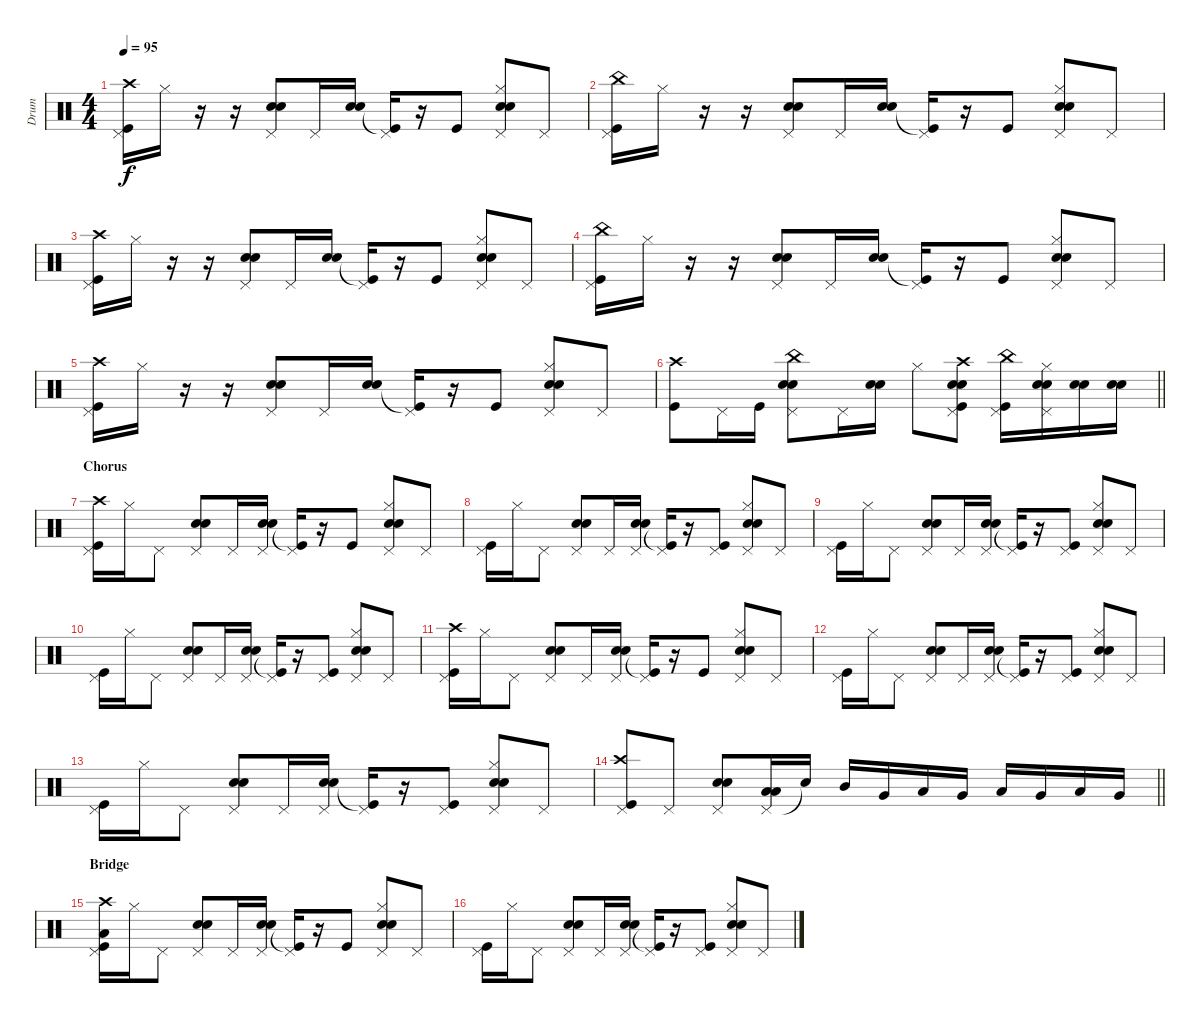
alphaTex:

\track ("Drum" "Drum") {instrument percussion}
\staff {score}
\articulation defaults
\ts (4 4)
\tempo 95
\clef neutral
\ks c
("Pedal Hi-Hat (hit)" "Crash high (hit)" "Kick (hit)").16{dy f} "Hi-Hat (closed)".16 r.16 r.16 ("Pedal Hi-Hat (hit)" "Snare (hit) 2" "Snare (hit) 2").8 "Pedal Hi-Hat (hit)".16 ("Snare (hit) 2" "Snare (hit) 2").16 ("Pedal Hi-Hat (hit)" "Kick (hit)"{t}).16 r.16 "Kick (hit)".8 ("Pedal Hi-Hat (hit)" "Hi-Hat (closed)" "Snare (hit) 2" "Snare (hit) 2").8 "Pedal Hi-Hat (hit)".8 |
("Pedal Hi-Hat (hit)" "China (hit)" "Kick (hit)").16 "Hi-Hat (closed)".16 r.16 r.16 ("Pedal Hi-Hat (hit)" "Snare (hit) 2" "Snare (hit) 2").8 "Pedal Hi-Hat (hit)".16 ("Snare (hit) 2" "Snare (hit) 2").16 ("Pedal Hi-Hat (hit)" "Kick (hit)"{t}).16 r.16 "Kick (hit)".8 ("Pedal Hi-Hat (hit)" "Hi-Hat (closed)" "Snare (hit) 2" "Snare (hit) 2").8 "Pedal Hi-Hat (hit)".8 |
("Pedal Hi-Hat (hit)" "Crash high (hit)" "Kick (hit)").16 "Hi-Hat (closed)".16 r.16 r.16 ("Pedal Hi-Hat (hit)" "Snare (hit) 2" "Snare (hit) 2").8 "Pedal Hi-Hat (hit)".16 ("Snare (hit) 2" "Snare (hit) 2").16 ("Pedal Hi-Hat (hit)" "Kick (hit)"{t}).16 r.16 "Kick (hit)".8 ("Pedal Hi-Hat (hit)" "Hi-Hat (closed)" "Snare (hit) 2" "Snare (hit) 2").8 "Pedal Hi-Hat (hit)".8 |
("Pedal Hi-Hat (hit)" "China (hit)" "Kick (hit)").16 "Hi-Hat (closed)".16 r.16 r.16 ("Pedal Hi-Hat (hit)" "Snare (hit) 2" "Snare (hit) 2").8 "Pedal Hi-Hat (hit)".16 ("Snare (hit) 2" "Snare (hit) 2").16 ("Pedal Hi-Hat (hit)" "Kick (hit)"{t}).16 r.16 "Kick (hit)".8 ("Pedal Hi-Hat (hit)" "Hi-Hat (closed)" "Snare (hit) 2" "Snare (hit) 2").8 "Pedal Hi-Hat (hit)".8 |
("Pedal Hi-Hat (hit)" "Crash high (hit)" "Kick (hit)").16 "Hi-Hat (closed)".16 r.16 r.16 ("Pedal Hi-Hat (hit)" "Snare (hit) 2" "Snare (hit) 2").8 "Pedal Hi-Hat (hit)".16 ("Snare (hit) 2" "Snare (hit) 2").16 ("Pedal Hi-Hat (hit)" "Kick (hit)"{t}).16 r.16 "Kick (hit)".8 ("Pedal Hi-Hat (hit)" "Hi-Hat (closed)" "Snare (hit) 2" "Snare (hit) 2").8 "Pedal Hi-Hat (hit)".8 |
\barLineRight lightlight
("Crash high (hit)" "Kick (hit)").8 "Pedal Hi-Hat (hit)".16 "Kick (hit)".16 ("Pedal Hi-Hat (hit)" "China (hit)" "Snare (hit) 2" "Snare (hit) 2").8 "Pedal Hi-Hat (hit)".16 ("Snare (hit) 2" "Snare (hit) 2").16 "Hi-Hat (closed)".8 ("Pedal Hi-Hat (hit)" "Crash high (hit)" "Snare (hit) 2" "Snare (hit) 2" "Kick (hit)").8 ("Pedal Hi-Hat (hit)" "China (hit)" "Kick (hit)").16 ("Pedal Hi-Hat (hit)" "Hi-Hat (closed)" "Snare (hit) 2" "Snare (hit) 2").16 ("Electric Snare (hit)" "Electric Snare (hit)").16 ("Electric Snare (hit)" "Electric Snare (hit)").16 |
\section ("" "Chorus")
("Pedal Hi-Hat (hit)" "Crash high (hit)" "Kick (hit)").16 "Hi-Hat (closed)".16 "Pedal Hi-Hat (hit)".8 ("Pedal Hi-Hat (hit)" "Snare (hit) 2" "Snare (hit) 2").8 "Pedal Hi-Hat (hit)".16 ("Pedal Hi-Hat (hit)" "Snare (hit) 2" "Snare (hit) 2").16 ("Pedal Hi-Hat (hit)" "Kick (hit)"{t}).16 r.16 "Kick (hit)".8 ("Pedal Hi-Hat (hit)" "Hi-Hat (closed)" "Snare (hit) 2" "Snare (hit) 2").8 "Pedal Hi-Hat (hit)".8 |
("Pedal Hi-Hat (hit)" "Kick (hit)").16 "Hi-Hat (closed)".16 "Pedal Hi-Hat (hit)".8 ("Pedal Hi-Hat (hit)" "Snare (hit) 2" "Snare (hit) 2").8 "Pedal Hi-Hat (hit)".16 ("Pedal Hi-Hat (hit)" "Snare (hit) 2" "Snare (hit) 2").16 ("Pedal Hi-Hat (hit)" "Kick (hit)"{t}).16 r.16 ("Pedal Hi-Hat (hit)" "Kick (hit)").8 ("Pedal Hi-Hat (hit)" "Hi-Hat (closed)" "Snare (hit) 2" "Snare (hit) 2").8 "Pedal Hi-Hat (hit)".8 |
("Pedal Hi-Hat (hit)" "Kick (hit)").16 "Hi-Hat (closed)".16 "Pedal Hi-Hat (hit)".8 ("Pedal Hi-Hat (hit)" "Snare (hit) 2" "Snare (hit) 2").8 "Pedal Hi-Hat (hit)".16 ("Pedal Hi-Hat (hit)" "Snare (hit) 2" "Snare (hit) 2").16 ("Pedal Hi-Hat (hit)" "Kick (hit)"{t}).16 r.16 ("Pedal Hi-Hat (hit)" "Kick (hit)").8 ("Pedal Hi-Hat (hit)" "Hi-Hat (closed)" "Snare (hit) 2" "Snare (hit) 2").8 "Pedal Hi-Hat (hit)".8 |
("Pedal Hi-Hat (hit)" "Kick (hit)").16 "Hi-Hat (closed)".16 "Pedal Hi-Hat (hit)".8 ("Pedal Hi-Hat (hit)" "Snare (hit) 2" "Snare (hit) 2").8 "Pedal Hi-Hat (hit)".16 ("Pedal Hi-Hat (hit)" "Snare (hit) 2" "Snare (hit) 2").16 ("Pedal Hi-Hat (hit)" "Kick (hit)"{t}).16 r.16 ("Pedal Hi-Hat (hit)" "Kick (hit)").8 ("Pedal Hi-Hat (hit)" "Hi-Hat (closed)" "Snare (hit) 2" "Snare (hit) 2").8 "Pedal Hi-Hat (hit)".8 |
("Pedal Hi-Hat (hit)" "Crash high (hit)" "Kick (hit)").16 "Hi-Hat (closed)".16 "Pedal Hi-Hat (hit)".8 ("Pedal Hi-Hat (hit)" "Snare (hit) 2" "Snare (hit) 2").8 "Pedal Hi-Hat (hit)".16 ("Pedal Hi-Hat (hit)" "Snare (hit) 2" "Snare (hit) 2").16 ("Pedal Hi-Hat (hit)" "Kick (hit)"{t}).16 r.16 "Kick (hit)".8 ("Pedal Hi-Hat (hit)" "Hi-Hat (closed)" "Snare (hit) 2" "Snare (hit) 2").8 "Pedal Hi-Hat (hit)".8 |
("Pedal Hi-Hat (hit)" "Kick (hit)").16 "Hi-Hat (closed)".16 "Pedal Hi-Hat (hit)".8 ("Pedal Hi-Hat (hit)" "Snare (hit) 2" "Snare (hit) 2").8 "Pedal Hi-Hat (hit)".16 ("Pedal Hi-Hat (hit)" "Snare (hit) 2" "Snare (hit) 2").16 ("Pedal Hi-Hat (hit)" "Kick (hit)"{t}).16 r.16 ("Pedal Hi-Hat (hit)" "Kick (hit)").8 ("Pedal Hi-Hat (hit)" "Hi-Hat (closed)" "Snare (hit) 2" "Snare (hit) 2").8 "Pedal Hi-Hat (hit)".8 |
("Pedal Hi-Hat (hit)" "Kick (hit)").16 "Hi-Hat (closed)".16 "Pedal Hi-Hat (hit)".8 ("Pedal Hi-Hat (hit)" "Snare (hit) 2" "Snare (hit) 2").8 "Pedal Hi-Hat (hit)".16 ("Pedal Hi-Hat (hit)" "Snare (hit) 2" "Snare (hit) 2").16 ("Pedal Hi-Hat (hit)" "Kick (hit)"{t}).16 r.16 ("Pedal Hi-Hat (hit)" "Kick (hit)").8 ("Pedal Hi-Hat (hit)" "Hi-Hat (closed)" "Snare (hit) 2" "Snare (hit) 2").8 "Pedal Hi-Hat (hit)".8 |
\barLineRight lightlight
("Pedal Hi-Hat (hit)" "Crash high (hit)" "Kick (hit)").8 "Pedal Hi-Hat (hit)".8 ("Pedal Hi-Hat (hit)" "Snare (hit) 2" "Snare (hit) 2").8 ("Pedal Hi-Hat (hit)" "Low Tom (hit)" "Low Tom (hit)").16 "Snare (hit) 2"{t}.16 "Mid Tom (hit)".16 "Very Low Tom (hit)".16 "Low Tom (hit)".16 "Very Low Tom (hit)".16 "Low Floor Tom (hit)".16 "Very Low Tom (hit)".16 "Low Floor Tom (hit)".16 "Very Low Tom (hit)".16 |
\section ("" "Bridge")
("Pedal Hi-Hat (hit)" "Crash high (hit)" "Low Floor Tom (hit)" "Kick (hit)").16 "Hi-Hat (closed)".16 "Pedal Hi-Hat (hit)".8 ("Pedal Hi-Hat (hit)" "Snare (hit) 2" "Snare (hit) 2").8 "Pedal Hi-Hat (hit)".16 ("Pedal Hi-Hat (hit)" "Snare (hit) 2" "Snare (hit) 2").16 ("Pedal Hi-Hat (hit)" "Kick (hit)"{t}).16 r.16 "Kick (hit)".8 ("Pedal Hi-Hat (hit)" "Hi-Hat (closed)" "Snare (hit) 2" "Snare (hit) 2").8 "Pedal Hi-Hat (hit)".8 |
("Pedal Hi-Hat (hit)" "Kick (hit)").16 "Hi-Hat (closed)".16 "Pedal Hi-Hat (hit)".8 ("Pedal Hi-Hat (hit)" "Snare (hit) 2" "Snare (hit) 2").8 "Pedal Hi-Hat (hit)".16 ("Pedal Hi-Hat (hit)" "Snare (hit) 2" "Snare (hit) 2").16 ("Pedal Hi-Hat (hit)" "Kick (hit)"{t}).16 r.16 ("Pedal Hi-Hat (hit)" "Kick (hit)").8 ("Pedal Hi-Hat (hit)" "Hi-Hat (closed)" "Snare (hit) 2" "Snare (hit) 2").8 "Pedal Hi-Hat (hit)".8
